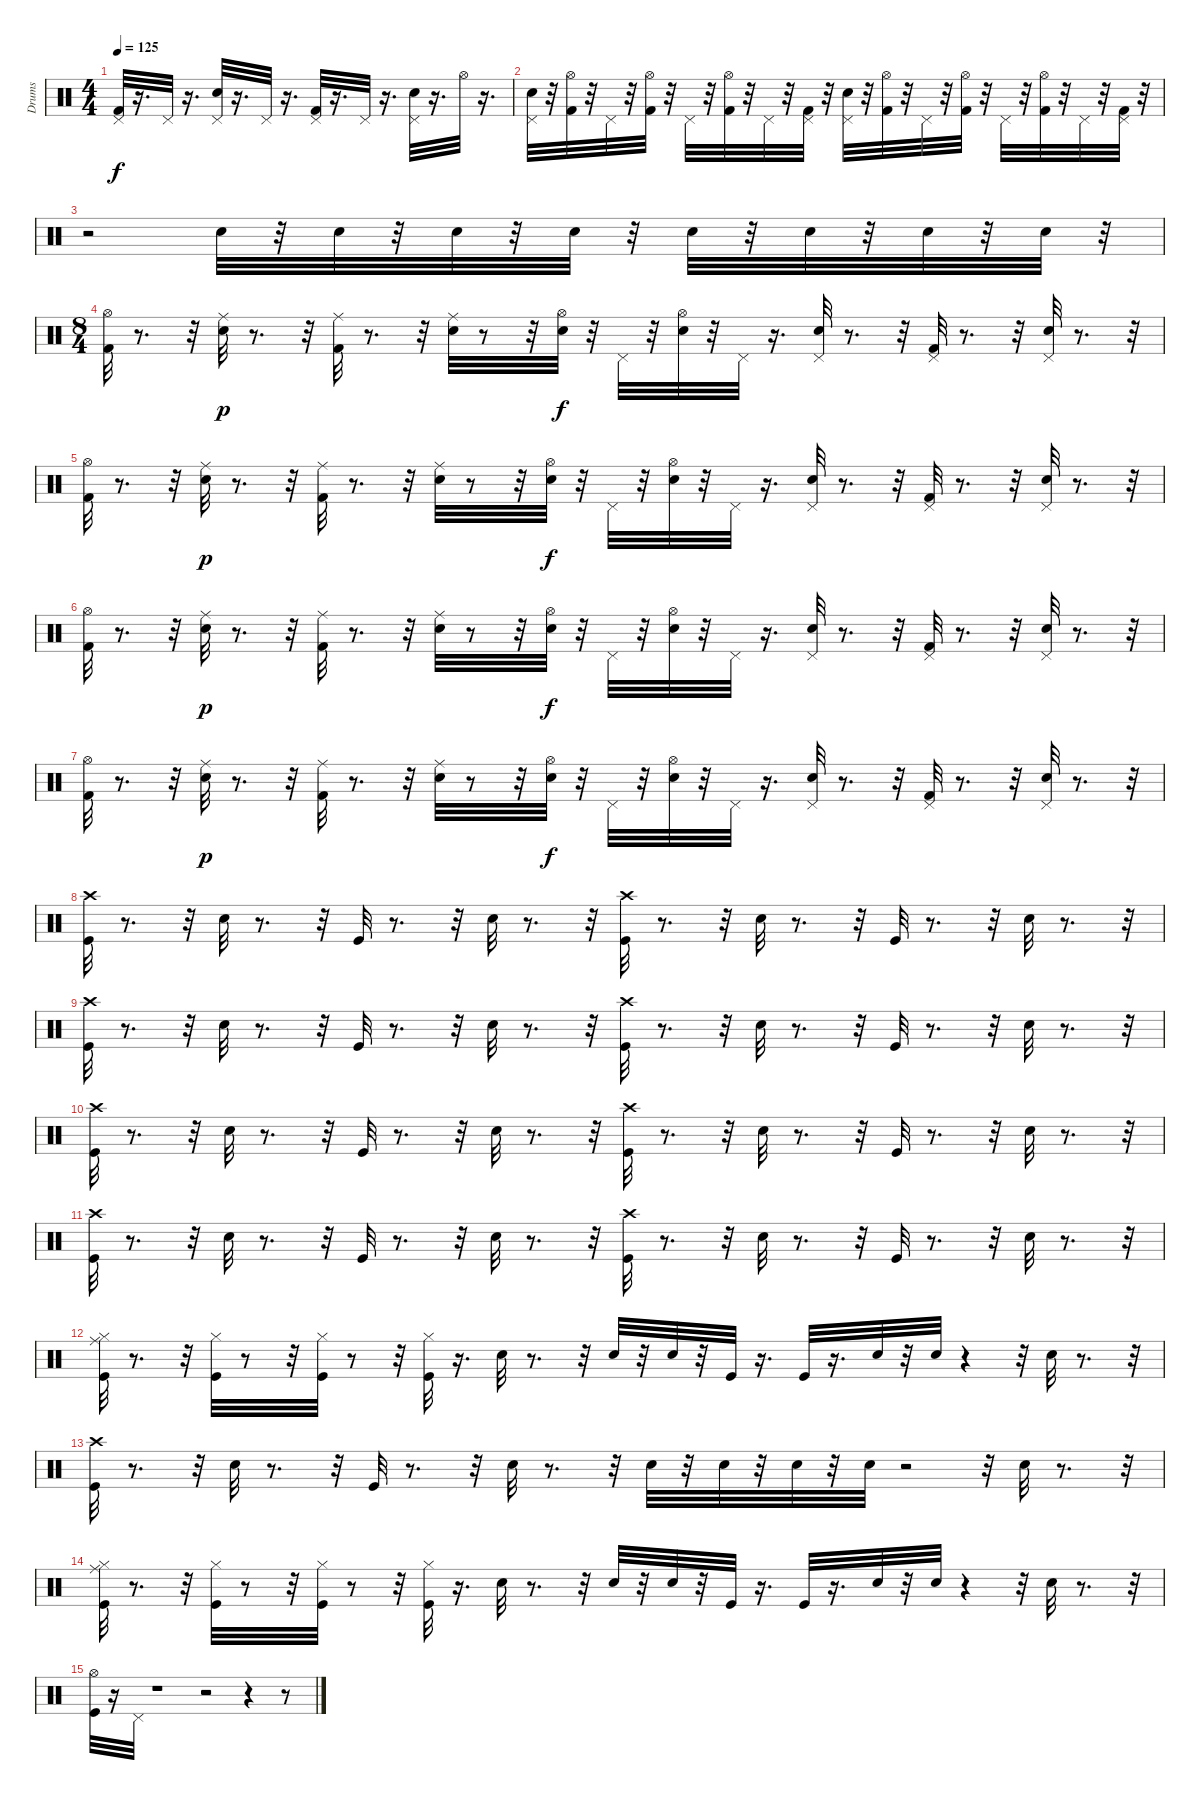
\track ("Drums" "Drums") {instrument percussion}
\staff {score}
\articulation defaults
\ts (4 4)
\tempo 125
\clef neutral
\ks c
("Pedal Hi-Hat (hit)" "Kick (hit) 2").32{dy f} r.16{d} "Pedal Hi-Hat (hit)".32 r.16{d} ("Pedal Hi-Hat (hit)" "Snare (hit) 2").32 r.16{d} "Pedal Hi-Hat (hit)".32 r.16{d} ("Pedal Hi-Hat (hit)" "Kick (hit) 2").32 r.16{d} "Pedal Hi-Hat (hit)".32 r.16{d} ("Pedal Hi-Hat (hit)" "Snare (hit) 2").32 r.16{d} "Hi-Hat (open)".32 r.16{d} |
("Pedal Hi-Hat (hit)" "Snare (hit) 2").32 r.32 ("Hi-Hat (open)" "Kick (hit) 2").32 r.32 "Pedal Hi-Hat (hit)".32 r.32 ("Hi-Hat (open)" "Kick (hit) 2").32 r.32 "Pedal Hi-Hat (hit)".32 r.32 ("Hi-Hat (open)" "Kick (hit) 2").32 r.32 "Pedal Hi-Hat (hit)".32 r.32 ("Pedal Hi-Hat (hit)" "Kick (hit) 2").32 r.32 ("Pedal Hi-Hat (hit)" "Snare (hit) 2").32 r.32 ("Hi-Hat (open)" "Kick (hit) 2").32 r.32 "Pedal Hi-Hat (hit)".32 r.32 ("Hi-Hat (open)" "Kick (hit) 2").32 r.32 "Pedal Hi-Hat (hit)".32 r.32 ("Hi-Hat (open)" "Kick (hit) 2").32 r.32 "Pedal Hi-Hat (hit)".32 r.32 ("Pedal Hi-Hat (hit)" "Kick (hit) 2").32 r.32 |
r.2 "Snare (hit) 2".32 r.32 "Snare (hit) 2".32 r.32 "Snare (hit) 2".32 r.32 "Snare (hit) 2".32 r.32 "Snare (hit) 2".32 r.32 "Snare (hit) 2".32 r.32 "Snare (hit) 2".32 r.32 "Snare (hit) 2".32 r.32 |
\ts (8 4)
("Hi-Hat (open)" "Kick (hit) 2").32 r.8{d} r.32 ("Ride (middle)" "Snare (hit) 2").32{dy p} r.8{d} r.32 ("Ride (middle)" "Kick (hit) 2").32 r.8{d} r.32 ("Ride (middle)" "Snare (hit) 2").32 r.8 r.32 ("Hi-Hat (open)" "Snare (hit) 2").32{dy f} r.32 "Pedal Hi-Hat (hit)".32 r.32 ("Hi-Hat (open)" "Snare (hit) 2").32 r.32 "Pedal Hi-Hat (hit)".32 r.16{d} ("Pedal Hi-Hat (hit)" "Snare (hit) 2").32 r.8{d} r.32 ("Pedal Hi-Hat (hit)" "Kick (hit) 2").32 r.8{d} r.32 ("Pedal Hi-Hat (hit)" "Snare (hit) 2").32 r.8{d} r.32 |
("Hi-Hat (open)" "Kick (hit) 2").32 r.8{d} r.32 ("Ride (middle)" "Snare (hit) 2").32{dy p} r.8{d} r.32 ("Ride (middle)" "Kick (hit) 2").32 r.8{d} r.32 ("Ride (middle)" "Snare (hit) 2").32 r.8 r.32 ("Hi-Hat (open)" "Snare (hit) 2").32{dy f} r.32 "Pedal Hi-Hat (hit)".32 r.32 ("Hi-Hat (open)" "Snare (hit) 2").32 r.32 "Pedal Hi-Hat (hit)".32 r.16{d} ("Pedal Hi-Hat (hit)" "Snare (hit) 2").32 r.8{d} r.32 ("Pedal Hi-Hat (hit)" "Kick (hit) 2").32 r.8{d} r.32 ("Pedal Hi-Hat (hit)" "Snare (hit) 2").32 r.8{d} r.32 |
("Hi-Hat (open)" "Kick (hit) 2").32 r.8{d} r.32 ("Ride (middle)" "Snare (hit) 2").32{dy p} r.8{d} r.32 ("Ride (middle)" "Kick (hit) 2").32 r.8{d} r.32 ("Ride (middle)" "Snare (hit) 2").32 r.8 r.32 ("Hi-Hat (open)" "Snare (hit) 2").32{dy f} r.32 "Pedal Hi-Hat (hit)".32 r.32 ("Hi-Hat (open)" "Snare (hit) 2").32 r.32 "Pedal Hi-Hat (hit)".32 r.16{d} ("Pedal Hi-Hat (hit)" "Snare (hit) 2").32 r.8{d} r.32 ("Pedal Hi-Hat (hit)" "Kick (hit) 2").32 r.8{d} r.32 ("Pedal Hi-Hat (hit)" "Snare (hit) 2").32 r.8{d} r.32 |
("Hi-Hat (open)" "Kick (hit) 2").32 r.8{d} r.32 ("Ride (middle)" "Snare (hit) 2").32{dy p} r.8{d} r.32 ("Ride (middle)" "Kick (hit) 2").32 r.8{d} r.32 ("Ride (middle)" "Snare (hit) 2").32 r.8 r.32 ("Hi-Hat (open)" "Snare (hit) 2").32{dy f} r.32 "Pedal Hi-Hat (hit)".32 r.32 ("Hi-Hat (open)" "Snare (hit) 2").32 r.32 "Pedal Hi-Hat (hit)".32 r.16{d} ("Pedal Hi-Hat (hit)" "Snare (hit) 2").32 r.8{d} r.32 ("Pedal Hi-Hat (hit)" "Kick (hit) 2").32 r.8{d} r.32 ("Pedal Hi-Hat (hit)" "Snare (hit) 2").32 r.8{d} r.32 |
("Crash high (hit)" "Kick (hit)").32 r.8{d} r.32 "Snare (hit) 2".32 r.8{d} r.32 "Kick (hit)".32 r.8{d} r.32 "Snare (hit) 2".32 r.8{d} r.32 ("Crash high (hit)" "Kick (hit)").32 r.8{d} r.32 "Snare (hit) 2".32 r.8{d} r.32 "Kick (hit)".32 r.8{d} r.32 "Snare (hit) 2".32 r.8{d} r.32 |
("Crash high (hit)" "Kick (hit)").32 r.8{d} r.32 "Snare (hit) 2".32 r.8{d} r.32 "Kick (hit)".32 r.8{d} r.32 "Snare (hit) 2".32 r.8{d} r.32 ("Crash high (hit)" "Kick (hit)").32 r.8{d} r.32 "Snare (hit) 2".32 r.8{d} r.32 "Kick (hit)".32 r.8{d} r.32 "Snare (hit) 2".32 r.8{d} r.32 |
("Crash high (hit)" "Kick (hit)").32 r.8{d} r.32 "Snare (hit) 2".32 r.8{d} r.32 "Kick (hit)".32 r.8{d} r.32 "Snare (hit) 2".32 r.8{d} r.32 ("Crash high (hit)" "Kick (hit)").32 r.8{d} r.32 "Snare (hit) 2".32 r.8{d} r.32 "Kick (hit)".32 r.8{d} r.32 "Snare (hit) 2".32 r.8{d} r.32 |
("Crash high (hit)" "Kick (hit)").32 r.8{d} r.32 "Snare (hit) 2".32 r.8{d} r.32 "Kick (hit)".32 r.8{d} r.32 "Snare (hit) 2".32 r.8{d} r.32 ("Crash high (hit)" "Kick (hit)").32 r.8{d} r.32 "Snare (hit) 2".32 r.8{d} r.32 "Kick (hit)".32 r.8{d} r.32 "Snare (hit) 2".32 r.8{d} r.32 |
("Kick (hit)" "Hi-Hat (closed)" "Ride (middle)").32 r.8{d} r.32 ("Kick (hit)" "Hi-Hat (closed)").32 r.8 r.32 ("Kick (hit)" "Hi-Hat (closed)").32 r.8 r.32 ("Kick (hit)" "Hi-Hat (closed)").32 r.16{d} "Snare (hit) 2".32 r.8{d} r.32 "Snare (hit) 2".32 r.32 "Snare (hit) 2".32 r.32 "Kick (hit)".32 r.16{d} "Kick (hit)".32 r.16{d} "Snare (hit) 2".32 r.32 "Snare (hit) 2".32 r.4 r.32 "Snare (hit) 2".32 r.8{d} r.32 |
("Crash high (hit)" "Kick (hit)").32 r.8{d} r.32 "Snare (hit) 2".32 r.8{d} r.32 "Kick (hit)".32 r.8{d} r.32 "Snare (hit) 2".32 r.8{d} r.32 "Snare (hit) 2".32 r.32 "Snare (hit) 2".32 r.32 "Snare (hit) 2".32 r.32 "Snare (hit) 2".32 r.2 r.32 "Snare (hit) 2".32 r.8{d} r.32 |
("Kick (hit)" "Hi-Hat (closed)" "Ride (middle)").32 r.8{d} r.32 ("Kick (hit)" "Hi-Hat (closed)").32 r.8 r.32 ("Kick (hit)" "Hi-Hat (closed)").32 r.8 r.32 ("Kick (hit)" "Hi-Hat (closed)").32 r.16{d} "Snare (hit) 2".32 r.8{d} r.32 "Snare (hit) 2".32 r.32 "Snare (hit) 2".32 r.32 "Kick (hit)".32 r.16{d} "Kick (hit)".32 r.16{d} "Snare (hit) 2".32 r.32 "Snare (hit) 2".32 r.4 r.32 "Snare (hit) 2".32 r.8{d} r.32 |
("Kick (hit)" "Hi-Hat (open)").32 r.16 "Pedal Hi-Hat (hit)".32 r.1 r.2 r.4 r.8
